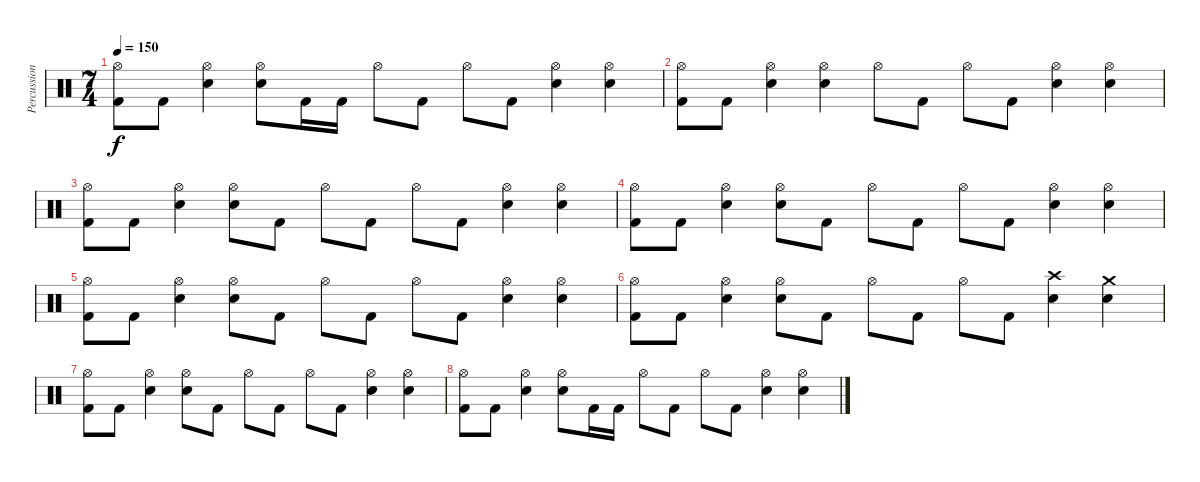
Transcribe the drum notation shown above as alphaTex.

\track ("Percussion" "Percussion") {instrument percussion}
\staff {score}
\articulation defaults
\ts (7 4)
\tempo 150
\clef neutral
\ks c
("Kick (hit) 2" "Hi-Hat (open)").8{dy f} "Kick (hit) 2".8 ("Snare (hit) 2" "Hi-Hat (open)").4 ("Snare (hit) 2" "Hi-Hat (open)").8 "Kick (hit) 2".16 "Kick (hit) 2".16 "Hi-Hat (open)".8 "Kick (hit) 2".8 "Hi-Hat (open)".8 "Kick (hit) 2".8 ("Snare (hit) 2" "Hi-Hat (open)").4 ("Snare (hit) 2" "Hi-Hat (open)").4 |
("Kick (hit) 2" "Hi-Hat (open)").8 "Kick (hit) 2".8 ("Snare (hit) 2" "Hi-Hat (open)").4 ("Snare (hit) 2" "Hi-Hat (open)").4 "Hi-Hat (open)".8 "Kick (hit) 2".8 "Hi-Hat (open)".8 "Kick (hit) 2".8 ("Snare (hit) 2" "Hi-Hat (open)").4 ("Snare (hit) 2" "Hi-Hat (open)").4 |
("Kick (hit) 2" "Hi-Hat (open)").8 "Kick (hit) 2".8 ("Snare (hit) 2" "Hi-Hat (open)").4 ("Snare (hit) 2" "Hi-Hat (open)").8 "Kick (hit) 2".8 "Hi-Hat (open)".8 "Kick (hit) 2".8 "Hi-Hat (open)".8 "Kick (hit) 2".8 ("Snare (hit) 2" "Hi-Hat (open)").4 ("Snare (hit) 2" "Hi-Hat (open)").4 |
("Kick (hit) 2" "Hi-Hat (open)").8 "Kick (hit) 2".8 ("Snare (hit) 2" "Hi-Hat (open)").4 ("Snare (hit) 2" "Hi-Hat (open)").8 "Kick (hit) 2".8 "Hi-Hat (open)".8 "Kick (hit) 2".8 "Hi-Hat (open)".8 "Kick (hit) 2".8 ("Snare (hit) 2" "Hi-Hat (open)").4 ("Snare (hit) 2" "Hi-Hat (open)").4 |
("Kick (hit) 2" "Hi-Hat (open)").8 "Kick (hit) 2".8 ("Snare (hit) 2" "Hi-Hat (open)").4 ("Snare (hit) 2" "Hi-Hat (open)").8 "Kick (hit) 2".8 "Hi-Hat (open)".8 "Kick (hit) 2".8 "Hi-Hat (open)".8 "Kick (hit) 2".8 ("Snare (hit) 2" "Hi-Hat (open)").4 ("Snare (hit) 2" "Hi-Hat (open)").4 |
("Kick (hit) 2" "Hi-Hat (open)").8 "Kick (hit) 2".8 ("Snare (hit) 2" "Hi-Hat (open)").4 ("Snare (hit) 2" "Hi-Hat (open)").8 "Kick (hit) 2".8 "Hi-Hat (open)".8 "Kick (hit) 2".8 "Hi-Hat (open)".8 "Kick (hit) 2".8 ("Snare (hit) 2" "Crash high (hit)").4 ("Snare (hit) 2" "Crash medium (hit)").4 |
("Kick (hit) 2" "Hi-Hat (open)").8 "Kick (hit) 2".8 ("Snare (hit) 2" "Hi-Hat (open)").4 ("Snare (hit) 2" "Hi-Hat (open)").8 "Kick (hit) 2".8 "Hi-Hat (open)".8 "Kick (hit) 2".8 "Hi-Hat (open)".8 "Kick (hit) 2".8 ("Snare (hit) 2" "Hi-Hat (open)").4 ("Snare (hit) 2" "Hi-Hat (open)").4 |
("Kick (hit) 2" "Hi-Hat (open)").8 "Kick (hit) 2".8 ("Snare (hit) 2" "Hi-Hat (open)").4 ("Snare (hit) 2" "Hi-Hat (open)").8 "Kick (hit) 2".16 "Kick (hit) 2".16 "Hi-Hat (open)".8 "Kick (hit) 2".8 "Hi-Hat (open)".8 "Kick (hit) 2".8 ("Snare (hit) 2" "Hi-Hat (open)").4 ("Snare (hit) 2" "Hi-Hat (open)").4
